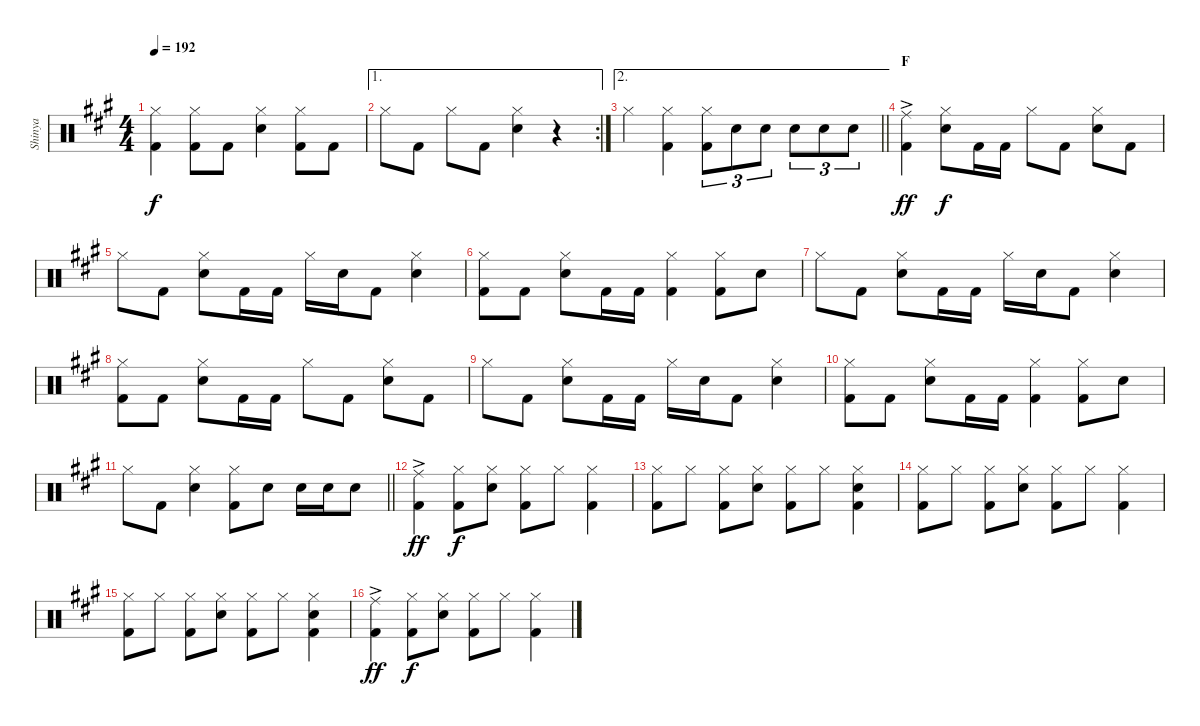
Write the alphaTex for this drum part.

\track ("Shinya" "Shinya") {instrument percussion}
\staff {score}
\articulation defaults
\ts (4 4)
\tempo 192
\clef neutral
\ks a
("Hi-Hat (closed)" "Kick (hit) 2").4{dy f} ("Hi-Hat (closed)" "Kick (hit) 2").8 "Kick (hit) 2".8 ("Hi-Hat (closed)" "Snare (hit) 2").4 ("Hi-Hat (closed)" "Kick (hit) 2").8 "Kick (hit) 2".8 |
\ae 1
\rc 2 "Hi-Hat (closed)".8 "Kick (hit) 2".8 "Hi-Hat (closed)".8 "Kick (hit) 2".8
("Hi-Hat (closed)" "Snare (hit) 2").4 r.4 |
\ae 2
\barLineRight lightlight "Hi-Hat (closed)".4
("Hi-Hat (closed)" "Kick (hit) 2").4 ("Hi-Hat (closed)" "Kick (hit) 2").8{tu (3 2)} "Snare (hit) 2".8{tu (3 2)} "Snare (hit) 2".8{tu (3 2)} "Snare (hit) 2".8{tu (3 2)} "Snare (hit) 2".8{tu (3 2)} "Snare (hit) 2".8{tu (3 2)} |
\section ("" "F")
("Ride (middle)"{ac} "Kick (hit) 2").4{dy ff} ("Hi-Hat (closed)" "Snare (hit) 2").8{dy f} "Kick (hit) 2".16 "Kick (hit) 2".16 "Hi-Hat (closed)".8 "Kick (hit) 2".8 ("Hi-Hat (closed)" "Snare (hit) 2").8 "Kick (hit) 2".8 |
"Hi-Hat (closed)".8 "Kick (hit) 2".8 ("Hi-Hat (closed)" "Snare (hit) 2").8 "Kick (hit) 2".16 "Kick (hit) 2".16 "Hi-Hat (closed)".16 "Snare (hit) 2".16 "Kick (hit) 2".8 ("Hi-Hat (closed)" "Snare (hit) 2").4 |
("Hi-Hat (closed)" "Kick (hit) 2").8 "Kick (hit) 2".8 ("Hi-Hat (closed)" "Snare (hit) 2").8 "Kick (hit) 2".16 "Kick (hit) 2".16 ("Hi-Hat (closed)" "Kick (hit) 2").4 ("Hi-Hat (closed)" "Kick (hit) 2").8 "Snare (hit) 2".8 |
"Hi-Hat (closed)".8 "Kick (hit) 2".8 ("Hi-Hat (closed)" "Snare (hit) 2").8 "Kick (hit) 2".16 "Kick (hit) 2".16 "Hi-Hat (closed)".16 "Snare (hit) 2".16 "Kick (hit) 2".8 ("Hi-Hat (closed)" "Snare (hit) 2").4 |
("Hi-Hat (closed)" "Kick (hit) 2").8 "Kick (hit) 2".8 ("Hi-Hat (closed)" "Snare (hit) 2").8 "Kick (hit) 2".16 "Kick (hit) 2".16 "Hi-Hat (closed)".8 "Kick (hit) 2".8 ("Hi-Hat (closed)" "Snare (hit) 2").8 "Kick (hit) 2".8 |
"Hi-Hat (closed)".8 "Kick (hit) 2".8 ("Hi-Hat (closed)" "Snare (hit) 2").8 "Kick (hit) 2".16 "Kick (hit) 2".16 "Hi-Hat (closed)".16 "Snare (hit) 2".16 "Kick (hit) 2".8 ("Hi-Hat (closed)" "Snare (hit) 2").4 |
("Hi-Hat (closed)" "Kick (hit) 2").8 "Kick (hit) 2".8 ("Hi-Hat (closed)" "Snare (hit) 2").8 "Kick (hit) 2".16 "Kick (hit) 2".16 ("Hi-Hat (closed)" "Kick (hit) 2").4 ("Hi-Hat (closed)" "Kick (hit) 2").8 "Snare (hit) 2".8 |
\barLineRight lightlight "Hi-Hat (closed)".8 "Kick (hit) 2".8
("Hi-Hat (closed)" "Snare (hit) 2").4 ("Hi-Hat (closed)" "Kick (hit) 2").8 "Snare (hit) 2".8 "Snare (hit) 2".16 "Snare (hit) 2".16 "Snare (hit) 2".8 |
("Ride (middle)"{ac} "Kick (hit) 2").4{dy ff} ("Hi-Hat (closed)" "Kick (hit) 2").8{dy f} ("Hi-Hat (closed)" "Snare (hit) 2").8 ("Hi-Hat (closed)" "Kick (hit) 2").8 "Hi-Hat (closed)".8 ("Hi-Hat (closed)" "Kick (hit) 2").4 |
("Hi-Hat (closed)" "Kick (hit) 2").8 "Hi-Hat (closed)".8 ("Hi-Hat (closed)" "Kick (hit) 2").8 ("Hi-Hat (closed)" "Snare (hit) 2").8 ("Hi-Hat (closed)" "Kick (hit) 2").8 "Hi-Hat (closed)".8 ("Hi-Hat (closed)" "Snare (hit) 2" "Kick (hit) 2").4 |
("Hi-Hat (closed)" "Kick (hit) 2").8 "Hi-Hat (closed)".8 ("Hi-Hat (closed)" "Kick (hit) 2").8 ("Hi-Hat (closed)" "Snare (hit) 2").8 ("Hi-Hat (closed)" "Kick (hit) 2").8 "Hi-Hat (closed)".8 ("Hi-Hat (closed)" "Kick (hit) 2").4 |
("Hi-Hat (closed)" "Kick (hit) 2").8 "Hi-Hat (closed)".8 ("Hi-Hat (closed)" "Kick (hit) 2").8 ("Hi-Hat (closed)" "Snare (hit) 2").8 ("Hi-Hat (closed)" "Kick (hit) 2").8 "Hi-Hat (closed)".8 ("Hi-Hat (closed)" "Snare (hit) 2" "Kick (hit) 2").4 |
("Ride (middle)"{ac} "Kick (hit) 2").4{dy ff} ("Hi-Hat (closed)" "Kick (hit) 2").8{dy f} ("Hi-Hat (closed)" "Snare (hit) 2").8 ("Hi-Hat (closed)" "Kick (hit) 2").8 "Hi-Hat (closed)".8 ("Hi-Hat (closed)" "Kick (hit) 2").4
